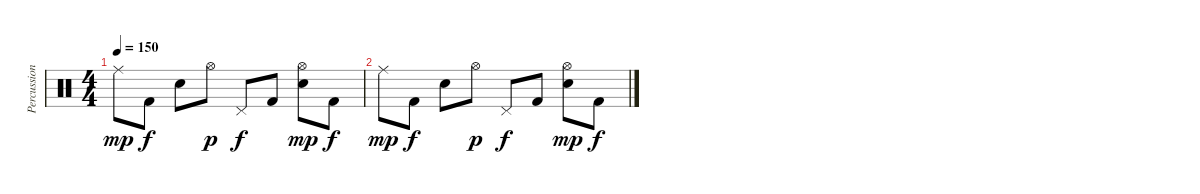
\track ("Percussion" "Percussion") {instrument percussion}
\staff {score}
\articulation defaults
\ts (4 4)
\tempo 150
\clef neutral
\ks c "Ride (middle)".8{dy mp} "Kick (hit) 2".8{dy f} "Electric Snare (hit)".8 "Hi-Hat (open)".8{dy p} "Pedal Hi-Hat (hit)".8{dy f} "Kick (hit) 2".8
("Hi-Hat (open)" "Electric Snare (hit)").8{dy mp} "Kick (hit) 2".8{dy f} |
"Ride (middle)".8{dy mp} "Kick (hit) 2".8{dy f} "Electric Snare (hit)".8 "Hi-Hat (open)".8{dy p} "Pedal Hi-Hat (hit)".8{dy f} "Kick (hit) 2".8 ("Hi-Hat (open)" "Electric Snare (hit)").8{dy mp} "Kick (hit) 2".8{dy f}
